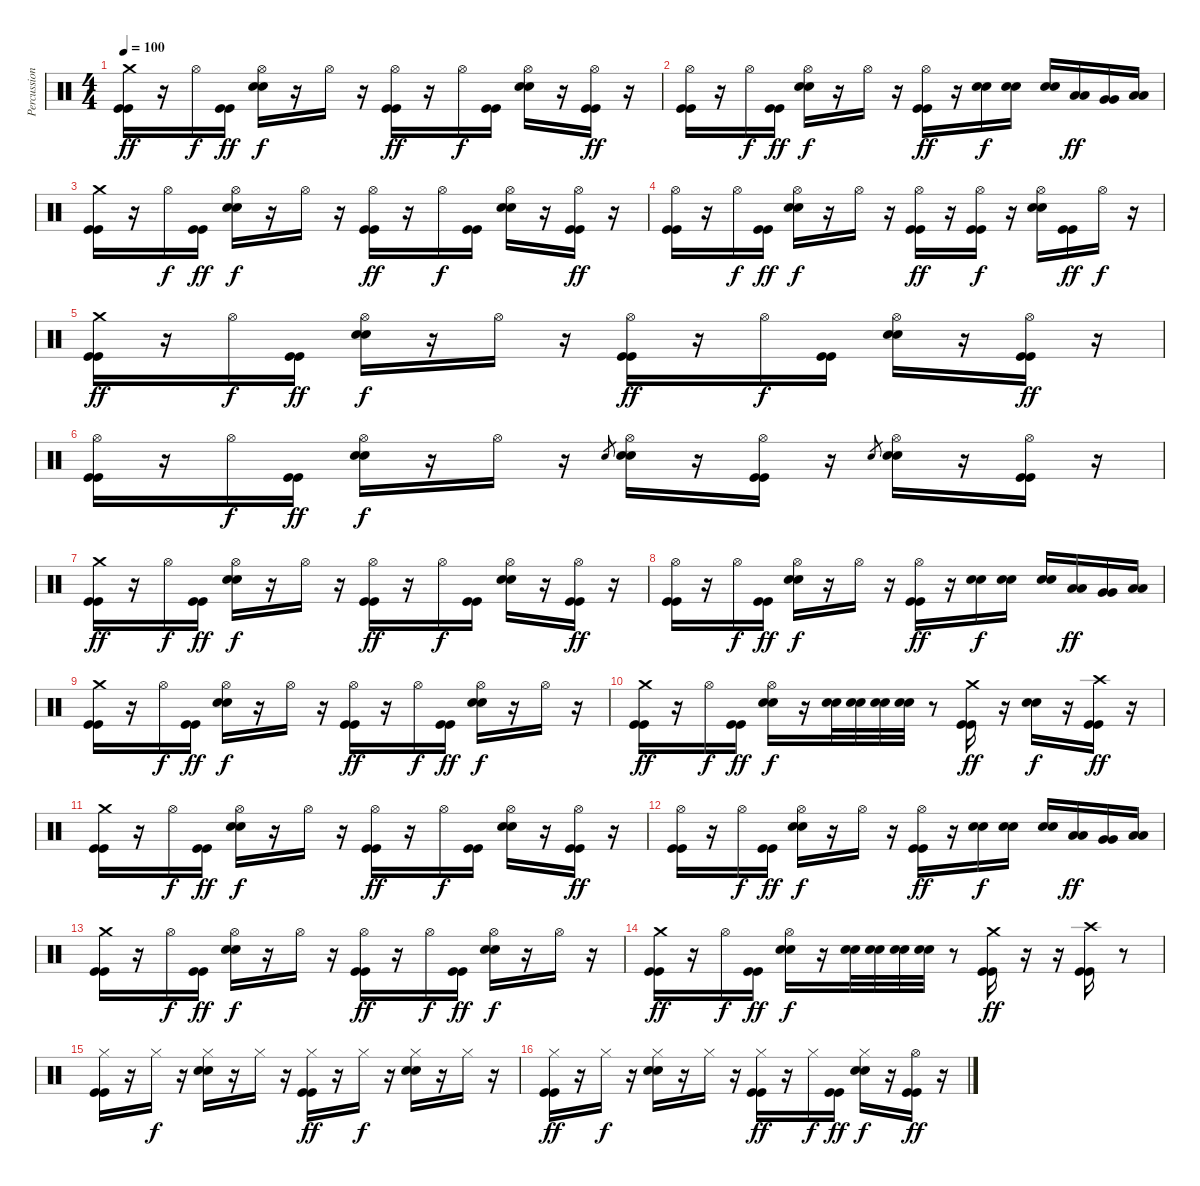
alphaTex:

\track ("Percussions" "Percussion") {instrument percussion}
\staff
\articulation defaults
\ts (4 4)
\tempo 100
\clef neutral
\ks c
("Crash medium (hit)" "Kick (hit)" "Kick (hit)").16{dy ff} r.16 "Hi-Hat (open)".16{dy f} ("Kick (hit)" "Kick (hit)").16{dy ff} ("Hi-Hat (open)" "Electric Snare (hit)" "Electric Snare (hit)").16{dy f} r.16 "Hi-Hat (open)".16 r.16 ("Hi-Hat (open)" "Kick (hit)" "Kick (hit)").16{dy ff} r.16 "Hi-Hat (open)".16{dy f} ("Kick (hit)" "Kick (hit)").16 ("Hi-Hat (open)" "Electric Snare (hit)" "Electric Snare (hit)").16 r.16 ("Hi-Hat (open)" "Kick (hit)" "Kick (hit)").16{dy ff} r.16 |
("Hi-Hat (open)" "Kick (hit)" "Kick (hit)").16 r.16 "Hi-Hat (open)".16{dy f} ("Kick (hit)" "Kick (hit)").16{dy ff} ("Hi-Hat (open)" "Electric Snare (hit)" "Electric Snare (hit)").16{dy f} r.16 "Hi-Hat (open)".16 r.16 ("Hi-Hat (open)" "Kick (hit)" "Kick (hit)").16{dy ff} r.16 ("Electric Snare (hit)" "Electric Snare (hit)").16{dy f} ("Electric Snare (hit)" "Electric Snare (hit)").16 ("Electric Snare (hit)" "Electric Snare (hit)").16 ("Low Tom (hit)" "Low Tom (hit)").16{dy ff} ("Very Low Tom (hit)" "Very Low Tom (hit)").16 ("Low Floor Tom (hit)" "Low Floor Tom (hit)").16 |
("Crash medium (hit)" "Kick (hit)" "Kick (hit)").16 r.16 "Hi-Hat (open)".16{dy f} ("Kick (hit)" "Kick (hit)").16{dy ff} ("Hi-Hat (open)" "Electric Snare (hit)" "Electric Snare (hit)").16{dy f} r.16 "Hi-Hat (open)".16 r.16 ("Hi-Hat (open)" "Kick (hit)" "Kick (hit)").16{dy ff} r.16 "Hi-Hat (open)".16{dy f} ("Kick (hit)" "Kick (hit)").16 ("Hi-Hat (open)" "Electric Snare (hit)" "Electric Snare (hit)").16 r.16 ("Hi-Hat (open)" "Kick (hit)" "Kick (hit)").16{dy ff} r.16 |
("Hi-Hat (open)" "Kick (hit)" "Kick (hit)").16 r.16 "Hi-Hat (open)".16{dy f} ("Kick (hit)" "Kick (hit)").16{dy ff} ("Hi-Hat (open)" "Electric Snare (hit)" "Electric Snare (hit)").16{dy f} r.16 "Hi-Hat (open)".16 r.16 ("Hi-Hat (open)" "Kick (hit)" "Kick (hit)").16{dy ff} r.16 ("Hi-Hat (open)" "Kick (hit)" "Kick (hit)").16{dy f} r.16 ("Hi-Hat (open)" "Electric Snare (hit)" "Electric Snare (hit)").16 ("Kick (hit)" "Kick (hit)").16{dy ff} "Hi-Hat (open)".16{dy f} r.16 |
("Crash medium (hit)" "Kick (hit)" "Kick (hit)").16{dy ff} r.16 "Hi-Hat (open)".16{dy f} ("Kick (hit)" "Kick (hit)").16{dy ff} ("Hi-Hat (open)" "Electric Snare (hit)" "Electric Snare (hit)").16{dy f} r.16 "Hi-Hat (open)".16 r.16 ("Hi-Hat (open)" "Kick (hit)" "Kick (hit)").16{dy ff} r.16 "Hi-Hat (open)".16{dy f} ("Kick (hit)" "Kick (hit)").16 ("Hi-Hat (open)" "Electric Snare (hit)" "Electric Snare (hit)").16 r.16 ("Hi-Hat (open)" "Kick (hit)" "Kick (hit)").16{dy ff} r.16 |
("Hi-Hat (open)" "Kick (hit)" "Kick (hit)").16 r.16 "Hi-Hat (open)".16{dy f} ("Kick (hit)" "Kick (hit)").16{dy ff} ("Hi-Hat (open)" "Electric Snare (hit)" "Electric Snare (hit)").16{dy f} r.16 "Hi-Hat (open)".16 r.16 "Electric Snare (hit)".8{gr} ("Hi-Hat (open)" "Electric Snare (hit)" "Electric Snare (hit)").16 r.16 ("Hi-Hat (open)" "Kick (hit)" "Kick (hit)").16 r.16 "Electric Snare (hit)".8{gr} ("Hi-Hat (open)" "Electric Snare (hit)" "Electric Snare (hit)").16 r.16 ("Hi-Hat (open)" "Kick (hit)" "Kick (hit)").16 r.16 |
("Crash medium (hit)" "Kick (hit)" "Kick (hit)").16{dy ff} r.16 "Hi-Hat (open)".16{dy f} ("Kick (hit)" "Kick (hit)").16{dy ff} ("Hi-Hat (open)" "Electric Snare (hit)" "Electric Snare (hit)").16{dy f} r.16 "Hi-Hat (open)".16 r.16 ("Hi-Hat (open)" "Kick (hit)" "Kick (hit)").16{dy ff} r.16 "Hi-Hat (open)".16{dy f} ("Kick (hit)" "Kick (hit)").16 ("Hi-Hat (open)" "Electric Snare (hit)" "Electric Snare (hit)").16 r.16 ("Hi-Hat (open)" "Kick (hit)" "Kick (hit)").16{dy ff} r.16 |
("Hi-Hat (open)" "Kick (hit)" "Kick (hit)").16 r.16 "Hi-Hat (open)".16{dy f} ("Kick (hit)" "Kick (hit)").16{dy ff} ("Hi-Hat (open)" "Electric Snare (hit)" "Electric Snare (hit)").16{dy f} r.16 "Hi-Hat (open)".16 r.16 ("Hi-Hat (open)" "Kick (hit)" "Kick (hit)").16{dy ff} r.16 ("Electric Snare (hit)" "Electric Snare (hit)").16{dy f} ("Electric Snare (hit)" "Electric Snare (hit)").16 ("Electric Snare (hit)" "Electric Snare (hit)").16 ("Low Tom (hit)" "Low Tom (hit)").16{dy ff} ("Very Low Tom (hit)" "Very Low Tom (hit)").16 ("Low Floor Tom (hit)" "Low Floor Tom (hit)").16 |
("Crash medium (hit)" "Kick (hit)" "Kick (hit)").16 r.16 "Hi-Hat (open)".16{dy f} ("Kick (hit)" "Kick (hit)").16{dy ff} ("Hi-Hat (open)" "Electric Snare (hit)" "Electric Snare (hit)").16{dy f} r.16 "Hi-Hat (open)".16 r.16 ("Hi-Hat (open)" "Kick (hit)" "Kick (hit)").16{dy ff} r.16 "Hi-Hat (open)".16{dy f} ("Kick (hit)" "Kick (hit)").16{dy ff} ("Hi-Hat (open)" "Electric Snare (hit)" "Electric Snare (hit)").16{dy f} r.16 "Hi-Hat (open)".16 r.16 |
("Crash medium (hit)" "Kick (hit)" "Kick (hit)").16{dy ff} r.16 "Hi-Hat (open)".16{dy f} ("Kick (hit)" "Kick (hit)").16{dy ff} ("Hi-Hat (open)" "Electric Snare (hit)" "Electric Snare (hit)").16{dy f} r.16 ("Electric Snare (hit)" "Electric Snare (hit)").32 ("Electric Snare (hit)" "Electric Snare (hit)").32 ("Electric Snare (hit)" "Electric Snare (hit)").32 ("Electric Snare (hit)" "Electric Snare (hit)").32 r.8 ("Crash medium (hit)" "Kick (hit)" "Kick (hit)").16{dy ff} r.16 ("Electric Snare (hit)" "Electric Snare (hit)").16{dy f} r.16 ("Crash high (hit)" "Kick (hit)" "Kick (hit)").16{dy ff} r.16 |
("Crash medium (hit)" "Kick (hit)" "Kick (hit)").16 r.16 "Hi-Hat (open)".16{dy f} ("Kick (hit)" "Kick (hit)").16{dy ff} ("Hi-Hat (open)" "Electric Snare (hit)" "Electric Snare (hit)").16{dy f} r.16 "Hi-Hat (open)".16 r.16 ("Hi-Hat (open)" "Kick (hit)" "Kick (hit)").16{dy ff} r.16 "Hi-Hat (open)".16{dy f} ("Kick (hit)" "Kick (hit)").16 ("Hi-Hat (open)" "Electric Snare (hit)" "Electric Snare (hit)").16 r.16 ("Hi-Hat (open)" "Kick (hit)" "Kick (hit)").16{dy ff} r.16 |
("Hi-Hat (open)" "Kick (hit)" "Kick (hit)").16 r.16 "Hi-Hat (open)".16{dy f} ("Kick (hit)" "Kick (hit)").16{dy ff} ("Hi-Hat (open)" "Electric Snare (hit)" "Electric Snare (hit)").16{dy f} r.16 "Hi-Hat (open)".16 r.16 ("Hi-Hat (open)" "Kick (hit)" "Kick (hit)").16{dy ff} r.16 ("Electric Snare (hit)" "Electric Snare (hit)").16{dy f} ("Electric Snare (hit)" "Electric Snare (hit)").16 ("Electric Snare (hit)" "Electric Snare (hit)").16 ("Low Tom (hit)" "Low Tom (hit)").16{dy ff} ("Very Low Tom (hit)" "Very Low Tom (hit)").16 ("Low Floor Tom (hit)" "Low Floor Tom (hit)").16 |
("Crash medium (hit)" "Kick (hit)" "Kick (hit)").16 r.16 "Hi-Hat (open)".16{dy f} ("Kick (hit)" "Kick (hit)").16{dy ff} ("Hi-Hat (open)" "Electric Snare (hit)" "Electric Snare (hit)").16{dy f} r.16 "Hi-Hat (open)".16 r.16 ("Hi-Hat (open)" "Kick (hit)" "Kick (hit)").16{dy ff} r.16 "Hi-Hat (open)".16{dy f} ("Kick (hit)" "Kick (hit)").16{dy ff} ("Hi-Hat (open)" "Electric Snare (hit)" "Electric Snare (hit)").16{dy f} r.16 "Hi-Hat (open)".16 r.16 |
("Crash medium (hit)" "Kick (hit)" "Kick (hit)").16{dy ff} r.16 "Hi-Hat (open)".16{dy f} ("Kick (hit)" "Kick (hit)").16{dy ff} ("Hi-Hat (open)" "Electric Snare (hit)" "Electric Snare (hit)").16{dy f} r.16 ("Electric Snare (hit)" "Electric Snare (hit)").32 ("Electric Snare (hit)" "Electric Snare (hit)").32 ("Electric Snare (hit)" "Electric Snare (hit)").32 ("Electric Snare (hit)" "Electric Snare (hit)").32 r.8 ("Crash medium (hit)" "Kick (hit)" "Kick (hit)").16{dy ff} r.16 r.16 ("Crash high (hit)" "Kick (hit)" "Kick (hit)").16 r.8 |
("Hi-Hat (closed)" "Kick (hit)" "Kick (hit)").16 r.16 "Hi-Hat (closed)".16{dy f} r.16 ("Hi-Hat (closed)" "Electric Snare (hit)" "Electric Snare (hit)").16 r.16 "Hi-Hat (closed)".16 r.16 ("Hi-Hat (closed)" "Kick (hit)" "Kick (hit)").16{dy ff} r.16 "Hi-Hat (closed)".16{dy f} r.16 ("Hi-Hat (closed)" "Electric Snare (hit)" "Electric Snare (hit)").16 r.16 "Hi-Hat (closed)".16 r.16 |
("Hi-Hat (closed)" "Kick (hit)" "Kick (hit)").16{dy ff} r.16 "Hi-Hat (closed)".16{dy f} r.16 ("Hi-Hat (closed)" "Electric Snare (hit)" "Electric Snare (hit)").16 r.16 "Hi-Hat (closed)".16 r.16 ("Hi-Hat (closed)" "Kick (hit)" "Kick (hit)").16{dy ff} r.16 "Hi-Hat (closed)".16{dy f} ("Kick (hit)" "Kick (hit)").16{dy ff} ("Hi-Hat (closed)" "Electric Snare (hit)" "Electric Snare (hit)").16{dy f} r.16 ("Hi-Hat (open)" "Kick (hit)" "Kick (hit)").16{dy ff} r.16
